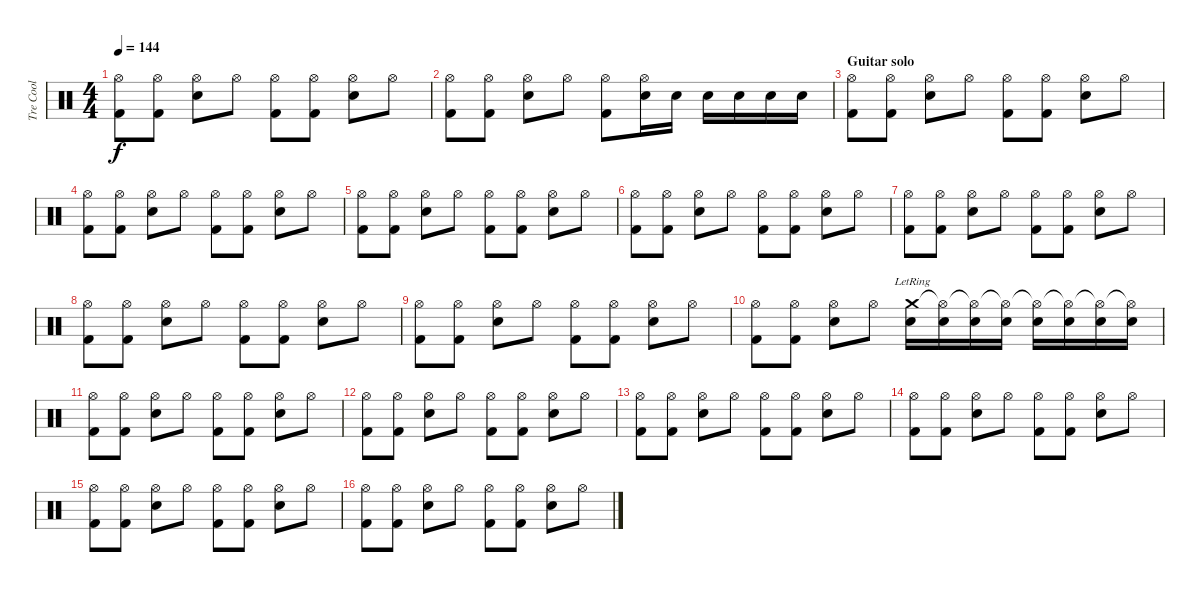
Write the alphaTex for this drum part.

\track ("Tre Cool" "Tre Cool") {instrument percussion}
\staff {score}
\articulation defaults
\ts (4 4)
\tempo 144
\clef neutral
\ks c
("Hi-Hat (open)" "Kick (hit) 2").8{dy f} ("Hi-Hat (open)" "Kick (hit) 2").8 ("Hi-Hat (open)" "Electric Snare (hit)").8 "Hi-Hat (open)".8 ("Hi-Hat (open)" "Kick (hit) 2").8 ("Hi-Hat (open)" "Kick (hit) 2").8 ("Hi-Hat (open)" "Electric Snare (hit)").8 "Hi-Hat (open)".8 |
("Hi-Hat (open)" "Kick (hit) 2").8 ("Hi-Hat (open)" "Kick (hit) 2").8 ("Hi-Hat (open)" "Electric Snare (hit)").8 "Hi-Hat (open)".8 ("Hi-Hat (open)" "Kick (hit) 2").8 ("Electric Snare (hit)" "Hi-Hat (open)").16 "Electric Snare (hit)".16 "Electric Snare (hit)".16 "Electric Snare (hit)".16 "Electric Snare (hit)".16 "Electric Snare (hit)".16 |
\section ("" "Guitar solo")
("Hi-Hat (open)" "Kick (hit) 2").8 ("Hi-Hat (open)" "Kick (hit) 2").8 ("Hi-Hat (open)" "Electric Snare (hit)").8 "Hi-Hat (open)".8 ("Hi-Hat (open)" "Kick (hit) 2").8 ("Hi-Hat (open)" "Kick (hit) 2").8 ("Hi-Hat (open)" "Electric Snare (hit)").8 "Hi-Hat (open)".8 |
("Hi-Hat (open)" "Kick (hit) 2").8 ("Hi-Hat (open)" "Kick (hit) 2").8 ("Hi-Hat (open)" "Electric Snare (hit)").8 "Hi-Hat (open)".8 ("Hi-Hat (open)" "Kick (hit) 2").8 ("Hi-Hat (open)" "Kick (hit) 2").8 ("Hi-Hat (open)" "Electric Snare (hit)").8 "Hi-Hat (open)".8 |
("Hi-Hat (open)" "Kick (hit) 2").8 ("Hi-Hat (open)" "Kick (hit) 2").8 ("Hi-Hat (open)" "Electric Snare (hit)").8 "Hi-Hat (open)".8 ("Hi-Hat (open)" "Kick (hit) 2").8 ("Hi-Hat (open)" "Kick (hit) 2").8 ("Hi-Hat (open)" "Electric Snare (hit)").8 "Hi-Hat (open)".8 |
("Hi-Hat (open)" "Kick (hit) 2").8 ("Hi-Hat (open)" "Kick (hit) 2").8 ("Hi-Hat (open)" "Electric Snare (hit)").8 "Hi-Hat (open)".8 ("Hi-Hat (open)" "Kick (hit) 2").8 ("Hi-Hat (open)" "Kick (hit) 2").8 ("Hi-Hat (open)" "Electric Snare (hit)").8 "Hi-Hat (open)".8 |
("Hi-Hat (open)" "Kick (hit) 2").8 ("Hi-Hat (open)" "Kick (hit) 2").8 ("Hi-Hat (open)" "Electric Snare (hit)").8 "Hi-Hat (open)".8 ("Hi-Hat (open)" "Kick (hit) 2").8 ("Hi-Hat (open)" "Kick (hit) 2").8 ("Hi-Hat (open)" "Electric Snare (hit)").8 "Hi-Hat (open)".8 |
("Hi-Hat (open)" "Kick (hit) 2").8 ("Hi-Hat (open)" "Kick (hit) 2").8 ("Hi-Hat (open)" "Electric Snare (hit)").8 "Hi-Hat (open)".8 ("Hi-Hat (open)" "Kick (hit) 2").8 ("Hi-Hat (open)" "Kick (hit) 2").8 ("Hi-Hat (open)" "Electric Snare (hit)").8 "Hi-Hat (open)".8 |
("Hi-Hat (open)" "Kick (hit) 2").8 ("Hi-Hat (open)" "Kick (hit) 2").8 ("Hi-Hat (open)" "Electric Snare (hit)").8 "Hi-Hat (open)".8 ("Hi-Hat (open)" "Kick (hit) 2").8 ("Hi-Hat (open)" "Kick (hit) 2").8 ("Hi-Hat (open)" "Electric Snare (hit)").8 "Hi-Hat (open)".8 |
("Hi-Hat (open)" "Kick (hit) 2").8 ("Hi-Hat (open)" "Kick (hit) 2").8 ("Hi-Hat (open)" "Electric Snare (hit)").8 "Hi-Hat (open)".8 ("Crash medium (hit)"{lr} "Electric Snare (hit)").16 ("Hi-Hat (open)"{t} "Electric Snare (hit)").16 ("Hi-Hat (open)"{t} "Electric Snare (hit)").16 ("Hi-Hat (open)"{t} "Electric Snare (hit)").16 ("Hi-Hat (open)"{t} "Electric Snare (hit)").16 ("Hi-Hat (open)"{t} "Electric Snare (hit)").16 ("Hi-Hat (open)"{t} "Electric Snare (hit)").16 ("Hi-Hat (open)"{t} "Electric Snare (hit)").16 |
("Hi-Hat (open)" "Kick (hit) 2").8 ("Hi-Hat (open)" "Kick (hit) 2").8 ("Hi-Hat (open)" "Electric Snare (hit)").8 "Hi-Hat (open)".8 ("Hi-Hat (open)" "Kick (hit) 2").8 ("Hi-Hat (open)" "Kick (hit) 2").8 ("Hi-Hat (open)" "Electric Snare (hit)").8 "Hi-Hat (open)".8 |
("Hi-Hat (open)" "Kick (hit) 2").8 ("Hi-Hat (open)" "Kick (hit) 2").8 ("Hi-Hat (open)" "Electric Snare (hit)").8 "Hi-Hat (open)".8 ("Hi-Hat (open)" "Kick (hit) 2").8 ("Hi-Hat (open)" "Kick (hit) 2").8 ("Hi-Hat (open)" "Electric Snare (hit)").8 "Hi-Hat (open)".8 |
("Hi-Hat (open)" "Kick (hit) 2").8 ("Hi-Hat (open)" "Kick (hit) 2").8 ("Hi-Hat (open)" "Electric Snare (hit)").8 "Hi-Hat (open)".8 ("Hi-Hat (open)" "Kick (hit) 2").8 ("Hi-Hat (open)" "Kick (hit) 2").8 ("Hi-Hat (open)" "Electric Snare (hit)").8 "Hi-Hat (open)".8 |
("Hi-Hat (open)" "Kick (hit) 2").8 ("Hi-Hat (open)" "Kick (hit) 2").8 ("Hi-Hat (open)" "Electric Snare (hit)").8 "Hi-Hat (open)".8 ("Hi-Hat (open)" "Kick (hit) 2").8 ("Hi-Hat (open)" "Kick (hit) 2").8 ("Hi-Hat (open)" "Electric Snare (hit)").8 "Hi-Hat (open)".8 |
("Hi-Hat (open)" "Kick (hit) 2").8 ("Hi-Hat (open)" "Kick (hit) 2").8 ("Hi-Hat (open)" "Electric Snare (hit)").8 "Hi-Hat (open)".8 ("Hi-Hat (open)" "Kick (hit) 2").8 ("Hi-Hat (open)" "Kick (hit) 2").8 ("Hi-Hat (open)" "Electric Snare (hit)").8 "Hi-Hat (open)".8 |
("Hi-Hat (open)" "Kick (hit) 2").8 ("Hi-Hat (open)" "Kick (hit) 2").8 ("Hi-Hat (open)" "Electric Snare (hit)").8 "Hi-Hat (open)".8 ("Hi-Hat (open)" "Kick (hit) 2").8 ("Hi-Hat (open)" "Kick (hit) 2").8 ("Hi-Hat (open)" "Electric Snare (hit)").8 "Hi-Hat (open)".8
